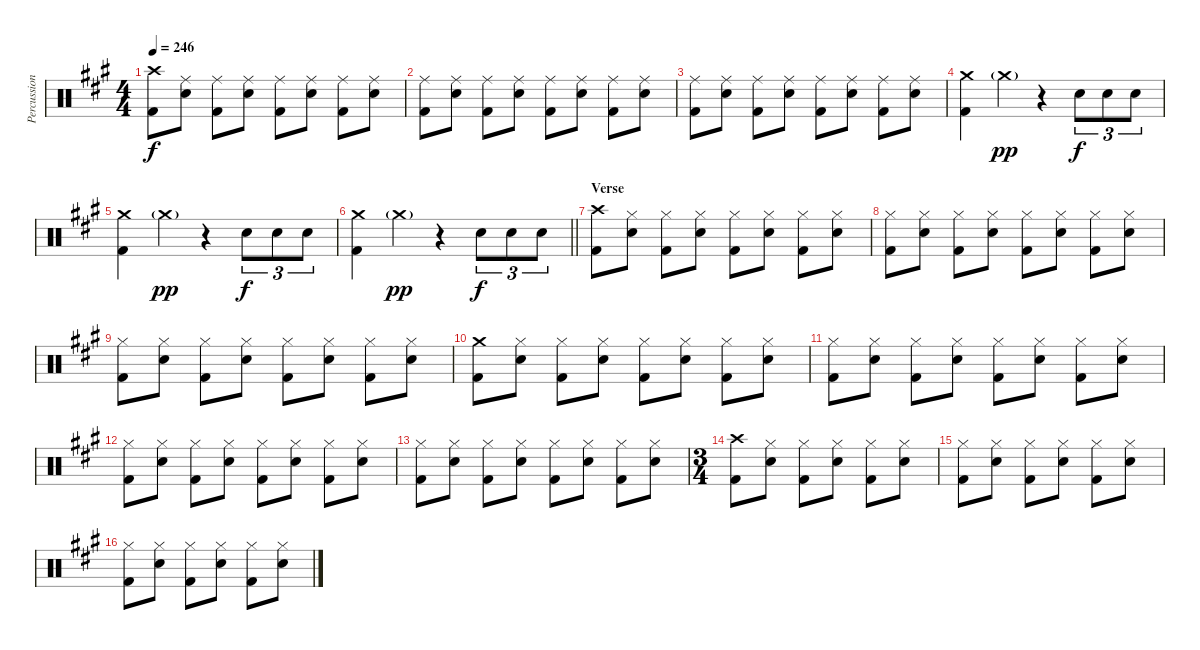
\track ("Percussion" "Percussion") {instrument percussion}
\staff {score}
\articulation defaults
\ts (4 4)
\tempo 246
\clef neutral
\ks f#minor
("Crash high (hit)" "Kick (hit) 2").8{dy f} ("Ride (middle)" "Electric Snare (hit)").8 ("Ride (middle)" "Kick (hit) 2").8 ("Ride (middle)" "Electric Snare (hit)").8 ("Ride (middle)" "Kick (hit) 2").8 ("Ride (middle)" "Electric Snare (hit)").8 ("Ride (middle)" "Kick (hit) 2").8 ("Ride (middle)" "Electric Snare (hit)").8 |
("Ride (middle)" "Kick (hit) 2").8 ("Ride (middle)" "Electric Snare (hit)").8 ("Ride (middle)" "Kick (hit) 2").8 ("Ride (middle)" "Electric Snare (hit)").8 ("Ride (middle)" "Kick (hit) 2").8 ("Ride (middle)" "Electric Snare (hit)").8 ("Ride (middle)" "Kick (hit) 2").8 ("Ride (middle)" "Electric Snare (hit)").8 |
("Ride (middle)" "Kick (hit) 2").8 ("Ride (middle)" "Electric Snare (hit)").8 ("Ride (middle)" "Kick (hit) 2").8 ("Ride (middle)" "Electric Snare (hit)").8 ("Ride (middle)" "Kick (hit) 2").8 ("Ride (middle)" "Electric Snare (hit)").8 ("Ride (middle)" "Kick (hit) 2").8 ("Ride (middle)" "Electric Snare (hit)").8 |
("Crash medium (hit)" "Kick (hit) 2").4 "Crash medium (hit)"{g}.4{dy pp} r.4 "Electric Snare (hit)".8{tu (3 2) dy f} "Electric Snare (hit)".8{tu (3 2)} "Electric Snare (hit)".8{tu (3 2)} |
("Crash medium (hit)" "Kick (hit) 2").4 "Crash medium (hit)"{g}.4{dy pp} r.4 "Electric Snare (hit)".8{tu (3 2) dy f} "Electric Snare (hit)".8{tu (3 2)} "Electric Snare (hit)".8{tu (3 2)} |
\barLineRight lightlight
("Crash medium (hit)" "Kick (hit) 2").4 "Crash medium (hit)"{g}.4{dy pp} r.4 "Electric Snare (hit)".8{tu (3 2) dy f} "Electric Snare (hit)".8{tu (3 2)} "Electric Snare (hit)".8{tu (3 2)} |
\section ("" "Verse")
("Crash high (hit)" "Kick (hit) 2").8 ("Hi-Hat (closed)" "Electric Snare (hit)").8 ("Hi-Hat (closed)" "Kick (hit) 2").8 ("Hi-Hat (closed)" "Electric Snare (hit)").8 ("Hi-Hat (closed)" "Kick (hit) 2").8 ("Hi-Hat (closed)" "Electric Snare (hit)").8 ("Hi-Hat (closed)" "Kick (hit) 2").8 ("Hi-Hat (closed)" "Electric Snare (hit)").8 |
("Hi-Hat (closed)" "Kick (hit) 2").8 ("Hi-Hat (closed)" "Electric Snare (hit)").8 ("Hi-Hat (closed)" "Kick (hit) 2").8 ("Hi-Hat (closed)" "Electric Snare (hit)").8 ("Hi-Hat (closed)" "Kick (hit) 2").8 ("Hi-Hat (closed)" "Electric Snare (hit)").8 ("Hi-Hat (closed)" "Kick (hit) 2").8 ("Hi-Hat (closed)" "Electric Snare (hit)").8 |
("Hi-Hat (closed)" "Kick (hit) 2").8 ("Hi-Hat (closed)" "Electric Snare (hit)").8 ("Hi-Hat (closed)" "Kick (hit) 2").8 ("Hi-Hat (closed)" "Electric Snare (hit)").8 ("Hi-Hat (closed)" "Kick (hit) 2").8 ("Hi-Hat (closed)" "Electric Snare (hit)").8 ("Hi-Hat (closed)" "Kick (hit) 2").8 ("Hi-Hat (closed)" "Electric Snare (hit)").8 |
("Crash medium (hit)" "Kick (hit) 2").8 ("Hi-Hat (closed)" "Electric Snare (hit)").8 ("Hi-Hat (closed)" "Kick (hit) 2").8 ("Hi-Hat (closed)" "Electric Snare (hit)").8 ("Hi-Hat (closed)" "Kick (hit) 2").8 ("Hi-Hat (closed)" "Electric Snare (hit)").8 ("Hi-Hat (closed)" "Kick (hit) 2").8 ("Hi-Hat (closed)" "Electric Snare (hit)").8 |
("Hi-Hat (closed)" "Kick (hit) 2").8 ("Hi-Hat (closed)" "Electric Snare (hit)").8 ("Hi-Hat (closed)" "Kick (hit) 2").8 ("Hi-Hat (closed)" "Electric Snare (hit)").8 ("Hi-Hat (closed)" "Kick (hit) 2").8 ("Hi-Hat (closed)" "Electric Snare (hit)").8 ("Hi-Hat (closed)" "Kick (hit) 2").8 ("Hi-Hat (closed)" "Electric Snare (hit)").8 |
("Hi-Hat (closed)" "Kick (hit) 2").8 ("Hi-Hat (closed)" "Electric Snare (hit)").8 ("Hi-Hat (closed)" "Kick (hit) 2").8 ("Hi-Hat (closed)" "Electric Snare (hit)").8 ("Hi-Hat (closed)" "Kick (hit) 2").8 ("Hi-Hat (closed)" "Electric Snare (hit)").8 ("Hi-Hat (closed)" "Kick (hit) 2").8 ("Hi-Hat (closed)" "Electric Snare (hit)").8 |
("Hi-Hat (closed)" "Kick (hit) 2").8 ("Hi-Hat (closed)" "Electric Snare (hit)").8 ("Hi-Hat (closed)" "Kick (hit) 2").8 ("Hi-Hat (closed)" "Electric Snare (hit)").8 ("Hi-Hat (closed)" "Kick (hit) 2").8 ("Hi-Hat (closed)" "Electric Snare (hit)").8 ("Hi-Hat (closed)" "Kick (hit) 2").8 ("Hi-Hat (closed)" "Electric Snare (hit)").8 |
\ts (3 4)
("Crash high (hit)" "Kick (hit) 2").8 ("Hi-Hat (closed)" "Electric Snare (hit)").8 ("Hi-Hat (closed)" "Kick (hit) 2").8 ("Hi-Hat (closed)" "Electric Snare (hit)").8 ("Hi-Hat (closed)" "Kick (hit) 2").8 ("Hi-Hat (closed)" "Electric Snare (hit)").8 |
("Hi-Hat (closed)" "Kick (hit) 2").8 ("Hi-Hat (closed)" "Electric Snare (hit)").8 ("Hi-Hat (closed)" "Kick (hit) 2").8 ("Hi-Hat (closed)" "Electric Snare (hit)").8 ("Hi-Hat (closed)" "Kick (hit) 2").8 ("Hi-Hat (closed)" "Electric Snare (hit)").8 |
("Hi-Hat (closed)" "Kick (hit) 2").8 ("Hi-Hat (closed)" "Electric Snare (hit)").8 ("Hi-Hat (closed)" "Kick (hit) 2").8 ("Hi-Hat (closed)" "Electric Snare (hit)").8 ("Hi-Hat (closed)" "Kick (hit) 2").8 ("Hi-Hat (closed)" "Electric Snare (hit)").8
